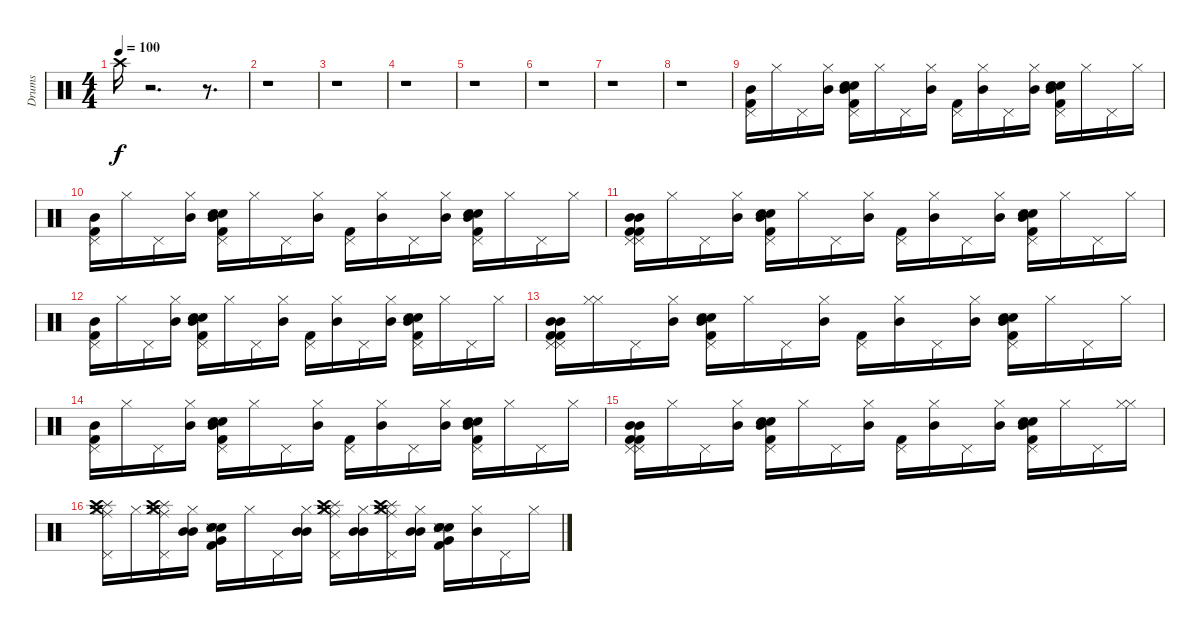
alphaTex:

\track ("Drums" "Drums") {instrument percussion}
\staff {score}
\articulation defaults
\ts (4 4)
\tempo 100
\clef neutral
\ks c "Crash high (hit)".16{dy f}
r.2{d} r.8{d} |
r.1 |
r.1 |
r.1 |
r.1 |
r.1 |
r.1 |
r.1 |
("Pedal Hi-Hat (hit)" "Kick (hit) 2" "Mid Tom (hit)").16 "Hi-Hat (closed)".16 "Pedal Hi-Hat (hit)".16 ("Hi-Hat (closed)" "Mid Tom (hit)").16 ("Pedal Hi-Hat (hit)" "Electric Snare (hit)" "Snare (hit) 2" "Kick (hit) 2" "Mid Tom (hit)").16 "Hi-Hat (closed)".16 "Pedal Hi-Hat (hit)".16 ("Hi-Hat (closed)" "Mid Tom (hit)").16 ("Pedal Hi-Hat (hit)" "Kick (hit) 2").16 ("Hi-Hat (closed)" "Mid Tom (hit)").16 "Pedal Hi-Hat (hit)".16 ("Hi-Hat (closed)" "Mid Tom (hit)").16 ("Pedal Hi-Hat (hit)" "Snare (hit) 2" "Electric Snare (hit)" "Kick (hit) 2" "Mid Tom (hit)").16 "Hi-Hat (closed)".16 "Pedal Hi-Hat (hit)".16 "Hi-Hat (closed)".16 |
("Pedal Hi-Hat (hit)" "Kick (hit) 2" "Mid Tom (hit)").16 "Hi-Hat (closed)".16 "Pedal Hi-Hat (hit)".16 ("Hi-Hat (closed)" "Mid Tom (hit)").16 ("Pedal Hi-Hat (hit)" "Snare (hit) 2" "Electric Snare (hit)" "Kick (hit) 2" "Mid Tom (hit)").16 "Hi-Hat (closed)".16 "Pedal Hi-Hat (hit)".16 ("Hi-Hat (closed)" "Mid Tom (hit)").16 ("Pedal Hi-Hat (hit)" "Kick (hit) 2").16 ("Hi-Hat (closed)" "Mid Tom (hit)").16 "Pedal Hi-Hat (hit)".16 ("Hi-Hat (closed)" "Mid Tom (hit)").16 ("Pedal Hi-Hat (hit)" "Snare (hit) 2" "Electric Snare (hit)" "Kick (hit) 2" "Mid Tom (hit)").16 "Hi-Hat (closed)".16 "Pedal Hi-Hat (hit)".16 "Hi-Hat (closed)".16 |
("Pedal Hi-Hat (hit)" "Kick (hit) 2" "Mid Tom (hit)" "Pedal Hi-Hat (hit)" "Kick (hit) 2" "Mid Tom (hit)").16 "Hi-Hat (closed)".16 "Pedal Hi-Hat (hit)".16 ("Hi-Hat (closed)" "Mid Tom (hit)").16 ("Pedal Hi-Hat (hit)" "Electric Snare (hit)" "Snare (hit) 2" "Kick (hit) 2" "Mid Tom (hit)").16 "Hi-Hat (closed)".16 "Pedal Hi-Hat (hit)".16 ("Hi-Hat (closed)" "Mid Tom (hit)").16 ("Pedal Hi-Hat (hit)" "Kick (hit) 2").16 ("Hi-Hat (closed)" "Mid Tom (hit)").16 "Pedal Hi-Hat (hit)".16 ("Hi-Hat (closed)" "Mid Tom (hit)").16 ("Pedal Hi-Hat (hit)" "Snare (hit) 2" "Electric Snare (hit)" "Kick (hit) 2" "Mid Tom (hit)").16 "Hi-Hat (closed)".16 "Pedal Hi-Hat (hit)".16 "Hi-Hat (closed)".16 |
("Pedal Hi-Hat (hit)" "Kick (hit) 2" "Mid Tom (hit)").16 "Hi-Hat (closed)".16 "Pedal Hi-Hat (hit)".16 ("Hi-Hat (closed)" "Mid Tom (hit)").16 ("Pedal Hi-Hat (hit)" "Snare (hit) 2" "Electric Snare (hit)" "Kick (hit) 2" "Mid Tom (hit)").16 "Hi-Hat (closed)".16 "Pedal Hi-Hat (hit)".16 ("Hi-Hat (closed)" "Mid Tom (hit)").16 ("Pedal Hi-Hat (hit)" "Kick (hit) 2").16 ("Hi-Hat (closed)" "Mid Tom (hit)").16 "Pedal Hi-Hat (hit)".16 ("Hi-Hat (closed)" "Mid Tom (hit)").16 ("Pedal Hi-Hat (hit)" "Snare (hit) 2" "Electric Snare (hit)" "Kick (hit) 2" "Mid Tom (hit)").16 "Hi-Hat (closed)".16 "Pedal Hi-Hat (hit)".16 "Hi-Hat (closed)".16 |
("Pedal Hi-Hat (hit)" "Kick (hit) 2" "Mid Tom (hit)" "Pedal Hi-Hat (hit)" "Kick (hit) 2" "Mid Tom (hit)").16 ("Hi-Hat (closed)" "Hi-Hat (closed)").16 "Pedal Hi-Hat (hit)".16 ("Hi-Hat (closed)" "Mid Tom (hit)").16 ("Pedal Hi-Hat (hit)" "Electric Snare (hit)" "Snare (hit) 2" "Kick (hit) 2" "Mid Tom (hit)").16 "Hi-Hat (closed)".16 "Pedal Hi-Hat (hit)".16 ("Hi-Hat (closed)" "Mid Tom (hit)").16 ("Pedal Hi-Hat (hit)" "Kick (hit) 2").16 ("Hi-Hat (closed)" "Mid Tom (hit)").16 "Pedal Hi-Hat (hit)".16 ("Hi-Hat (closed)" "Mid Tom (hit)").16 ("Pedal Hi-Hat (hit)" "Snare (hit) 2" "Electric Snare (hit)" "Kick (hit) 2" "Mid Tom (hit)").16 "Hi-Hat (closed)".16 "Pedal Hi-Hat (hit)".16 "Hi-Hat (closed)".16 |
("Pedal Hi-Hat (hit)" "Kick (hit) 2" "Mid Tom (hit)").16 "Hi-Hat (closed)".16 "Pedal Hi-Hat (hit)".16 ("Hi-Hat (closed)" "Mid Tom (hit)").16 ("Pedal Hi-Hat (hit)" "Snare (hit) 2" "Electric Snare (hit)" "Kick (hit) 2" "Mid Tom (hit)").16 "Hi-Hat (closed)".16 "Pedal Hi-Hat (hit)".16 ("Hi-Hat (closed)" "Mid Tom (hit)").16 ("Pedal Hi-Hat (hit)" "Kick (hit) 2").16 ("Hi-Hat (closed)" "Mid Tom (hit)").16 "Pedal Hi-Hat (hit)".16 ("Hi-Hat (closed)" "Mid Tom (hit)").16 ("Pedal Hi-Hat (hit)" "Snare (hit) 2" "Electric Snare (hit)" "Kick (hit) 2" "Mid Tom (hit)").16 "Hi-Hat (closed)".16 "Pedal Hi-Hat (hit)".16 "Hi-Hat (closed)".16 |
("Pedal Hi-Hat (hit)" "Kick (hit) 2" "Mid Tom (hit)" "Pedal Hi-Hat (hit)" "Kick (hit) 2" "Mid Tom (hit)").16 "Hi-Hat (closed)".16 "Pedal Hi-Hat (hit)".16 ("Hi-Hat (closed)" "Mid Tom (hit)").16 ("Pedal Hi-Hat (hit)" "Electric Snare (hit)" "Snare (hit) 2" "Kick (hit) 2" "Mid Tom (hit)").16 "Hi-Hat (closed)".16 "Pedal Hi-Hat (hit)".16 ("Hi-Hat (closed)" "Mid Tom (hit)").16 ("Pedal Hi-Hat (hit)" "Kick (hit) 2").16 ("Hi-Hat (closed)" "Mid Tom (hit)").16 "Pedal Hi-Hat (hit)".16 ("Hi-Hat (closed)" "Mid Tom (hit)").16 ("Pedal Hi-Hat (hit)" "Snare (hit) 2" "Electric Snare (hit)" "Kick (hit) 2" "Mid Tom (hit)").16 "Hi-Hat (closed)".16 "Pedal Hi-Hat (hit)".16 ("Hi-Hat (closed)" "Hi-Hat (closed)").16 |
("Pedal Hi-Hat (hit)" "Hi-Hat (closed)" "Ride (middle)" "Splash (hit)" "Crash high (hit)" "Crash medium (hit)").16 "Hi-Hat (closed)".16 ("Hi-Hat (closed)" "Pedal Hi-Hat (hit)" "Ride (middle)" "Splash (hit)" "Crash high (hit)" "Crash medium (hit)").16 ("Mid Tom (hit)" "Hi-Hat (closed)" "Mid Tom (hit)").16 ("Snare (hit) 2" "Kick (hit) 2" "Electric Snare (hit)" "Hand Clap (hit)" "Snare (side stick) 3" "Very Low Tom (hit)").16 "Hi-Hat (closed)".16 "Pedal Hi-Hat (hit)".16 ("Mid Tom (hit)" "Hi-Hat (closed)" "Mid Tom (hit)").16 ("Hi-Hat (closed)" "Pedal Hi-Hat (hit)" "Ride (middle)" "Splash (hit)" "Crash high (hit)" "Crash medium (hit)").16 ("Mid Tom (hit)" "Hi-Hat (closed)" "Mid Tom (hit)").16 ("Hi-Hat (closed)" "Pedal Hi-Hat (hit)" "Ride (middle)" "Splash (hit)" "Crash high (hit)" "Crash medium (hit)").16 ("Mid Tom (hit)" "Hi-Hat (closed)" "Mid Tom (hit)").16 ("Kick (hit) 2" "Snare (hit) 2" "Electric Snare (hit)" "Hand Clap (hit)" "Snare (side stick) 3" "Very Low Tom (hit)").16 ("Mid Tom (hit)" "Hi-Hat (closed)").16 "Pedal Hi-Hat (hit)".16 "Hi-Hat (closed)".16
